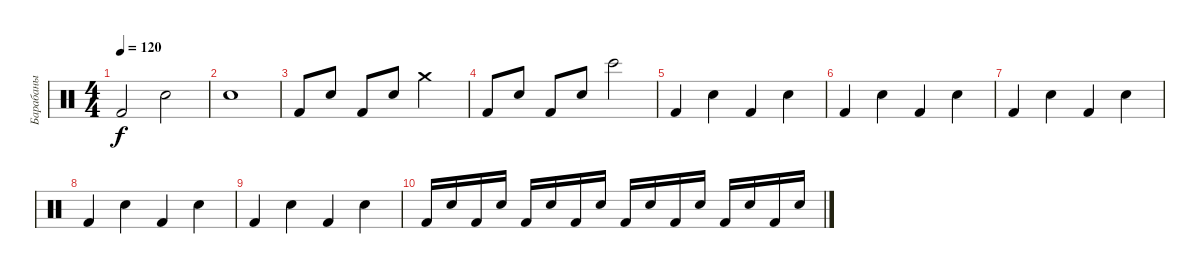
\track ("Барабаны" "Барабаны") {instrument percussion}
\staff {score}
\articulation defaults
\ts (4 4)
\tempo 120
\clef neutral
\ks c "Kick (hit) 2".2{dy f} "Snare (hit) 2".2
|
"Snare (hit) 2".1 |
"Kick (hit) 2".8 "Snare (hit) 2".8 "Kick (hit) 2".8 "Snare (hit) 2".8 "Crash medium (hit)".2 |
"Kick (hit) 2".8 "Snare (hit) 2".8 "Kick (hit) 2".8 "Snare (hit) 2".8 "Bongo High (hit)".2 |
"Kick (hit) 2".4 "Hand Clap (hit)".4 "Kick (hit) 2".4 "Hand Clap (hit)".4 |
"Kick (hit) 2".4 "Hand Clap (hit)".4 "Kick (hit) 2".4 "Hand Clap (hit)".4 |
"Kick (hit) 2".4 "Hand Clap (hit)".4 "Kick (hit) 2".4 "Hand Clap (hit)".4 |
"Kick (hit) 2".4 "Hand Clap (hit)".4 "Kick (hit) 2".4 "Hand Clap (hit)".4 |
"Kick (hit) 2".4 "Hand Clap (hit)".4 "Kick (hit) 2".4 "Hand Clap (hit)".4 |
"Kick (hit) 2".16 "Snare (hit) 2".16 "Kick (hit) 2".16 "Snare (hit) 2".16 "Kick (hit) 2".16 "Snare (hit) 2".16 "Kick (hit) 2".16 "Snare (hit) 2".16 "Kick (hit) 2".16 "Snare (hit) 2".16 "Kick (hit) 2".16 "Snare (hit) 2".16 "Kick (hit) 2".16 "Snare (hit) 2".16 "Kick (hit) 2".16 "Snare (hit) 2".16
